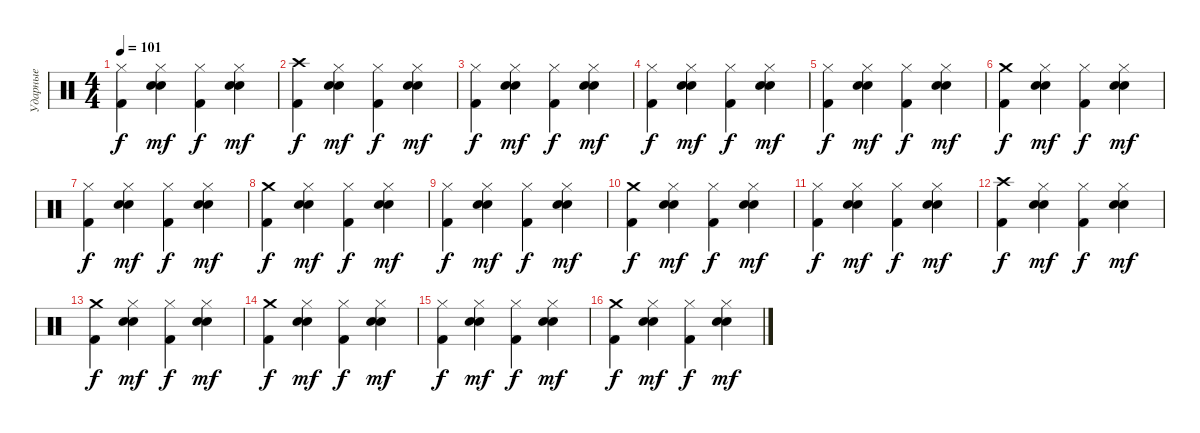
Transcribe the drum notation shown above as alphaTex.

\track ("Ударные" "Ударные") {instrument percussion}
\staff {score}
\articulation defaults
\ts (4 4)
\tempo 101
\clef neutral
\ks c
("Kick (hit) 2" "Hi-Hat (closed)").4{dy f} ("Electric Snare (hit)" "Hand Clap (hit)" "Hi-Hat (closed)").4{dy mf} ("Kick (hit) 2" "Hi-Hat (closed)").4{dy f} ("Electric Snare (hit)" "Hand Clap (hit)" "Hi-Hat (closed)").4{dy mf} |
("Kick (hit) 2" "Crash high (hit)").4{dy f} ("Electric Snare (hit)" "Hand Clap (hit)" "Hi-Hat (closed)").4{dy mf} ("Kick (hit) 2" "Hi-Hat (closed)").4{dy f} ("Electric Snare (hit)" "Hand Clap (hit)" "Hi-Hat (closed)").4{dy mf} |
("Kick (hit) 2" "Hi-Hat (closed)").4{dy f} ("Electric Snare (hit)" "Hand Clap (hit)" "Hi-Hat (closed)").4{dy mf} ("Kick (hit) 2" "Hi-Hat (closed)").4{dy f} ("Electric Snare (hit)" "Hand Clap (hit)" "Hi-Hat (closed)").4{dy mf} |
("Kick (hit) 2" "Hi-Hat (closed)").4{dy f} ("Electric Snare (hit)" "Hand Clap (hit)" "Hi-Hat (closed)").4{dy mf} ("Kick (hit) 2" "Hi-Hat (closed)").4{dy f} ("Electric Snare (hit)" "Hand Clap (hit)" "Hi-Hat (closed)").4{dy mf} |
("Kick (hit) 2" "Hi-Hat (closed)").4{dy f} ("Electric Snare (hit)" "Hand Clap (hit)" "Hi-Hat (closed)").4{dy mf} ("Kick (hit) 2" "Hi-Hat (closed)").4{dy f} ("Electric Snare (hit)" "Hand Clap (hit)" "Hi-Hat (closed)").4{dy mf} |
("Kick (hit) 2" "Crash medium (hit)").4{dy f} ("Electric Snare (hit)" "Hand Clap (hit)" "Hi-Hat (closed)").4{dy mf} ("Kick (hit) 2" "Hi-Hat (closed)").4{dy f} ("Electric Snare (hit)" "Hand Clap (hit)" "Hi-Hat (closed)").4{dy mf} |
("Kick (hit) 2" "Hi-Hat (closed)").4{dy f} ("Electric Snare (hit)" "Hand Clap (hit)" "Hi-Hat (closed)").4{dy mf} ("Kick (hit) 2" "Hi-Hat (closed)").4{dy f} ("Electric Snare (hit)" "Hand Clap (hit)" "Hi-Hat (closed)").4{dy mf} |
("Kick (hit) 2" "Crash medium (hit)").4{dy f} ("Electric Snare (hit)" "Hand Clap (hit)" "Hi-Hat (closed)").4{dy mf} ("Kick (hit) 2" "Hi-Hat (closed)").4{dy f} ("Electric Snare (hit)" "Hand Clap (hit)" "Hi-Hat (closed)").4{dy mf} |
("Kick (hit) 2" "Hi-Hat (closed)").4{dy f} ("Electric Snare (hit)" "Hand Clap (hit)" "Hi-Hat (closed)").4{dy mf} ("Kick (hit) 2" "Hi-Hat (closed)").4{dy f} ("Electric Snare (hit)" "Hand Clap (hit)" "Hi-Hat (closed)").4{dy mf} |
("Kick (hit) 2" "Crash medium (hit)").4{dy f} ("Electric Snare (hit)" "Hand Clap (hit)" "Hi-Hat (closed)").4{dy mf} ("Kick (hit) 2" "Hi-Hat (closed)").4{dy f} ("Electric Snare (hit)" "Hand Clap (hit)" "Hi-Hat (closed)").4{dy mf} |
("Kick (hit) 2" "Hi-Hat (closed)").4{dy f} ("Electric Snare (hit)" "Hand Clap (hit)" "Hi-Hat (closed)").4{dy mf} ("Kick (hit) 2" "Hi-Hat (closed)").4{dy f} ("Electric Snare (hit)" "Hand Clap (hit)" "Hi-Hat (closed)").4{dy mf} |
("Kick (hit) 2" "Crash high (hit)").4{dy f} ("Electric Snare (hit)" "Hand Clap (hit)" "Hi-Hat (closed)").4{dy mf} ("Kick (hit) 2" "Hi-Hat (closed)").4{dy f} ("Electric Snare (hit)" "Hand Clap (hit)" "Hi-Hat (closed)").4{dy mf} |
("Kick (hit) 2" "Crash medium (hit)").4{dy f} ("Electric Snare (hit)" "Hand Clap (hit)" "Hi-Hat (closed)").4{dy mf} ("Kick (hit) 2" "Hi-Hat (closed)").4{dy f} ("Electric Snare (hit)" "Hand Clap (hit)" "Hi-Hat (closed)").4{dy mf} |
("Kick (hit) 2" "Crash medium (hit)").4{dy f} ("Electric Snare (hit)" "Hand Clap (hit)" "Hi-Hat (closed)").4{dy mf} ("Kick (hit) 2" "Hi-Hat (closed)").4{dy f} ("Electric Snare (hit)" "Hand Clap (hit)" "Hi-Hat (closed)").4{dy mf} |
("Kick (hit) 2" "Hi-Hat (closed)").4{dy f} ("Electric Snare (hit)" "Hand Clap (hit)" "Hi-Hat (closed)").4{dy mf} ("Kick (hit) 2" "Hi-Hat (closed)").4{dy f} ("Electric Snare (hit)" "Hand Clap (hit)" "Hi-Hat (closed)").4{dy mf} |
("Kick (hit) 2" "Crash medium (hit)").4{dy f} ("Electric Snare (hit)" "Hand Clap (hit)" "Hi-Hat (closed)").4{dy mf} ("Kick (hit) 2" "Hi-Hat (closed)").4{dy f} ("Electric Snare (hit)" "Hand Clap (hit)" "Hi-Hat (closed)").4{dy mf}
